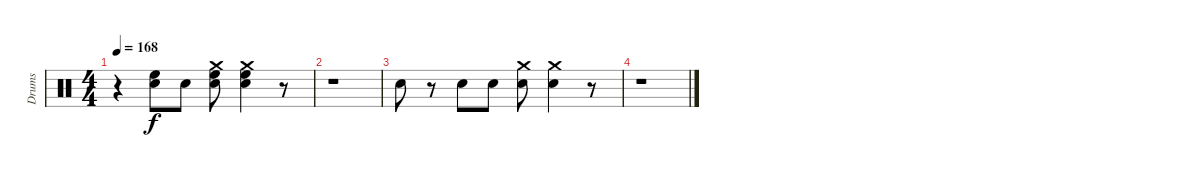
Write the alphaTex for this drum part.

\track ("Drums" "Drums") {instrument percussion}
\staff {score}
\articulation defaults
\ts (4 4)
\tempo 168
\clef neutral
\ks c
r.4{dy f} ("Electric Snare (hit)" "High Floor Tom (hit)").8 "Electric Snare (hit)".8 ("Crash medium (hit)" "Electric Snare (hit)" "High Floor Tom (hit)").8 ("Crash medium (hit)" "Electric Snare (hit)" "High Floor Tom (hit)").4 r.8 |
r.1 |
"Electric Snare (hit)".8 r.8 "Electric Snare (hit)".8 "Electric Snare (hit)".8 ("Electric Snare (hit)" "Crash medium (hit)").8 ("Electric Snare (hit)" "Crash medium (hit)").4 r.8 |
r.1
